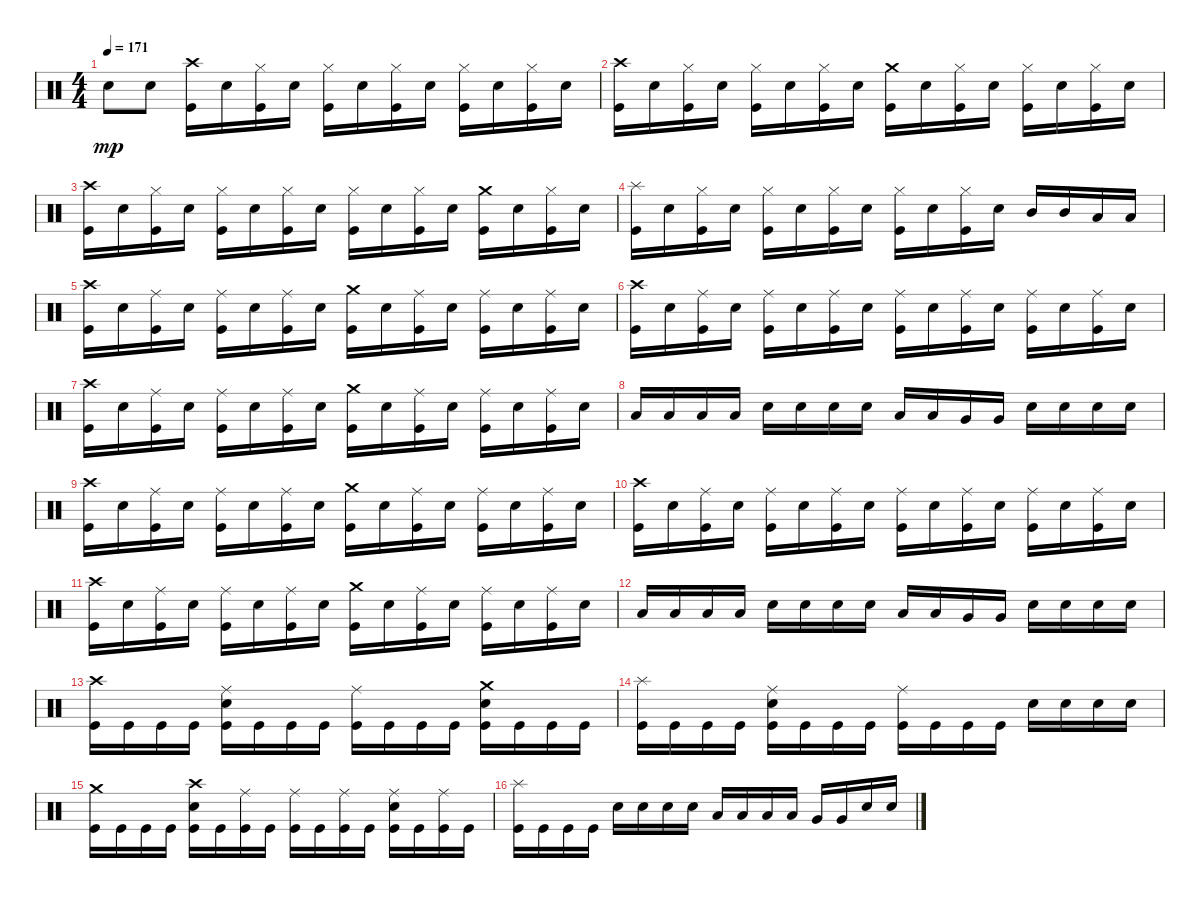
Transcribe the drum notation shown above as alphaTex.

\track "" {instrument percussion}
\staff {score}
\articulation defaults
\ts (4 4)
\tempo 171
\clef neutral
\ks c "Snare (hit) 2".8{dy mp} "Snare (hit) 2".8
("Kick (hit)" "Crash high (hit)").16 "Snare (hit) 2".16 ("Kick (hit)" "Hi-Hat (closed)").16 "Snare (hit) 2".16 ("Kick (hit)" "Hi-Hat (closed)").16 "Snare (hit) 2".16 ("Kick (hit)" "Hi-Hat (closed)").16 "Snare (hit) 2".16 ("Kick (hit)" "Hi-Hat (closed)").16 "Snare (hit) 2".16 ("Kick (hit)" "Hi-Hat (closed)").16 "Snare (hit) 2".16 |
("Kick (hit)" "Crash high (hit)").16 "Snare (hit) 2".16 ("Kick (hit)" "Hi-Hat (closed)").16 "Snare (hit) 2".16 ("Kick (hit)" "Hi-Hat (closed)").16 "Snare (hit) 2".16 ("Kick (hit)" "Hi-Hat (closed)").16 "Snare (hit) 2".16 ("Crash medium (hit)" "Kick (hit)").16 "Snare (hit) 2".16 ("Hi-Hat (closed)" "Kick (hit)").16 "Snare (hit) 2".16 ("Kick (hit)" "Hi-Hat (closed)").16 "Snare (hit) 2".16 ("Hi-Hat (closed)" "Kick (hit)").16 "Snare (hit) 2".16 |
("Kick (hit)" "Crash high (hit)").16 "Snare (hit) 2".16 ("Hi-Hat (closed)" "Kick (hit)").16 "Snare (hit) 2".16 ("Hi-Hat (closed)" "Kick (hit)").16 "Snare (hit) 2".16 ("Hi-Hat (closed)" "Kick (hit)").16 "Snare (hit) 2".16 ("Hi-Hat (closed)" "Kick (hit)").16 "Snare (hit) 2".16 ("Hi-Hat (closed)" "Kick (hit)").16 "Snare (hit) 2".16 ("Crash medium (hit)" "Kick (hit)").16 "Snare (hit) 2".16 ("Kick (hit)" "Hi-Hat (closed)").16 "Snare (hit) 2".16 |
("Kick (hit)" "Splash (hit)").16 "Snare (hit) 2".16 ("Hi-Hat (closed)" "Kick (hit)").16 "Snare (hit) 2".16 ("Hi-Hat (closed)" "Kick (hit)").16 "Snare (hit) 2".16 ("Hi-Hat (closed)" "Kick (hit)").16 "Snare (hit) 2".16 ("Hi-Hat (closed)" "Kick (hit)").16 "Snare (hit) 2".16 ("Hi-Hat (closed)" "Kick (hit)").16 "Snare (hit) 2".16 "Mid Tom (hit)".16 "Mid Tom (hit)".16 "Low Tom (hit)".16 "Low Tom (hit)".16 |
("Kick (hit)" "Crash high (hit)").16 "Snare (hit) 2".16 ("Kick (hit)" "Ride (middle)").16 "Snare (hit) 2".16 ("Kick (hit)" "Ride (middle)").16 "Snare (hit) 2".16 ("Kick (hit)" "Ride (middle)").16 "Snare (hit) 2".16 ("Kick (hit)" "Crash medium (hit)").16 "Snare (hit) 2".16 ("Kick (hit)" "Ride (middle)").16 "Snare (hit) 2".16 ("Kick (hit)" "Ride (middle)").16 "Snare (hit) 2".16 ("Kick (hit)" "Ride (middle)").16 "Snare (hit) 2".16 |
("Crash high (hit)" "Kick (hit)").16 "Snare (hit) 2".16 ("Kick (hit)" "Ride (middle)").16 "Snare (hit) 2".16 ("Kick (hit)" "Ride (middle)").16 "Snare (hit) 2".16 ("Kick (hit)" "Ride (middle)").16 "Snare (hit) 2".16 ("Ride (middle)" "Kick (hit)").16 "Snare (hit) 2".16 ("Ride (middle)" "Kick (hit)").16 "Snare (hit) 2".16 ("Ride (middle)" "Kick (hit)").16 "Snare (hit) 2".16 ("Ride (middle)" "Kick (hit)").16 "Snare (hit) 2".16 |
("Kick (hit)" "Crash high (hit)").16 "Snare (hit) 2".16 ("Kick (hit)" "Ride (middle)").16 "Snare (hit) 2".16 ("Kick (hit)" "Ride (middle)").16 "Snare (hit) 2".16 ("Kick (hit)" "Ride (middle)").16 "Snare (hit) 2".16 ("Kick (hit)" "Crash medium (hit)").16 "Snare (hit) 2".16 ("Kick (hit)" "Ride (middle)").16 "Snare (hit) 2".16 ("Kick (hit)" "Ride (middle)").16 "Snare (hit) 2".16 ("Kick (hit)" "Ride (middle)").16 "Snare (hit) 2".16 |
"Low Tom (hit)".16 "Low Tom (hit)".16 "Low Tom (hit)".16 "Low Tom (hit)".16 "Snare (hit) 2".16 "Snare (hit) 2".16 "Snare (hit) 2".16 "Snare (hit) 2".16 "Low Tom (hit)".16 "Low Tom (hit)".16 "Very Low Tom (hit)".16 "Very Low Tom (hit)".16 "Snare (hit) 2".16 "Snare (hit) 2".16 "Snare (hit) 2".16 "Snare (hit) 2".16 |
("Kick (hit)" "Crash high (hit)").16 "Snare (hit) 2".16 ("Kick (hit)" "Ride (middle)").16 "Snare (hit) 2".16 ("Kick (hit)" "Ride (middle)").16 "Snare (hit) 2".16 ("Kick (hit)" "Ride (middle)").16 "Snare (hit) 2".16 ("Kick (hit)" "Crash medium (hit)").16 "Snare (hit) 2".16 ("Kick (hit)" "Ride (middle)").16 "Snare (hit) 2".16 ("Kick (hit)" "Ride (middle)").16 "Snare (hit) 2".16 ("Kick (hit)" "Ride (middle)").16 "Snare (hit) 2".16 |
("Crash high (hit)" "Kick (hit)").16 "Snare (hit) 2".16 ("Kick (hit)" "Ride (middle)").16 "Snare (hit) 2".16 ("Kick (hit)" "Ride (middle)").16 "Snare (hit) 2".16 ("Kick (hit)" "Ride (middle)").16 "Snare (hit) 2".16 ("Ride (middle)" "Kick (hit)").16 "Snare (hit) 2".16 ("Ride (middle)" "Kick (hit)").16 "Snare (hit) 2".16 ("Ride (middle)" "Kick (hit)").16 "Snare (hit) 2".16 ("Ride (middle)" "Kick (hit)").16 "Snare (hit) 2".16 |
("Kick (hit)" "Crash high (hit)").16 "Snare (hit) 2".16 ("Kick (hit)" "Ride (middle)").16 "Snare (hit) 2".16 ("Kick (hit)" "Ride (middle)").16 "Snare (hit) 2".16 ("Kick (hit)" "Ride (middle)").16 "Snare (hit) 2".16 ("Kick (hit)" "Crash medium (hit)").16 "Snare (hit) 2".16 ("Kick (hit)" "Ride (middle)").16 "Snare (hit) 2".16 ("Kick (hit)" "Ride (middle)").16 "Snare (hit) 2".16 ("Kick (hit)" "Ride (middle)").16 "Snare (hit) 2".16 |
"Low Tom (hit)".16 "Low Tom (hit)".16 "Low Tom (hit)".16 "Low Tom (hit)".16 "Snare (hit) 2".16 "Snare (hit) 2".16 "Snare (hit) 2".16 "Snare (hit) 2".16 "Low Tom (hit)".16 "Low Tom (hit)".16 "Very Low Tom (hit)".16 "Very Low Tom (hit)".16 "Snare (hit) 2".16 "Snare (hit) 2".16 "Snare (hit) 2".16 "Snare (hit) 2".16 |
("Kick (hit)" "Crash high (hit)").16 "Kick (hit)".16 "Kick (hit)".16 "Kick (hit)".16 ("Kick (hit)" "Ride (middle)" "Snare (hit) 2").16 "Kick (hit)".16 "Kick (hit)".16 "Kick (hit)".16 ("Kick (hit)" "Ride (middle)").16 "Kick (hit)".16 "Kick (hit)".16 "Kick (hit)".16 ("Kick (hit)" "Crash medium (hit)" "Snare (hit) 2").16 "Kick (hit)".16 "Kick (hit)".16 "Kick (hit)".16 |
("Kick (hit)" "Splash (hit)").16 "Kick (hit)".16 "Kick (hit)".16 "Kick (hit)".16 ("Kick (hit)" "Snare (hit) 2" "Ride (middle)").16 "Kick (hit)".16 "Kick (hit)".16 "Kick (hit)".16 ("Kick (hit)" "Ride (middle)").16 "Kick (hit)".16 "Kick (hit)".16 "Kick (hit)".16 "Snare (hit) 2".16 "Snare (hit) 2".16 "Snare (hit) 2".16 "Snare (hit) 2".16 |
("Crash medium (hit)" "Kick (hit)").16 "Kick (hit)".16 "Kick (hit)".16 "Kick (hit)".16 ("Kick (hit)" "Snare (hit) 2" "Crash high (hit)").16 "Kick (hit)".16 ("Kick (hit)" "Ride (middle)").16 "Kick (hit)".16 ("Kick (hit)" "Ride (middle)").16 "Kick (hit)".16 ("Kick (hit)" "Ride (middle)").16 "Kick (hit)".16 ("Kick (hit)" "Snare (hit) 2" "Ride (middle)").16 "Kick (hit)".16 ("Kick (hit)" "Ride (middle)").16 "Kick (hit)".16 |
("Splash (hit)" "Kick (hit)").16 "Kick (hit)".16 "Kick (hit)".16 "Kick (hit)".16 "Snare (hit) 2".16 "Snare (hit) 2".16 "Snare (hit) 2".16 "Snare (hit) 2".16 "Low Tom (hit)".16 "Low Tom (hit)".16 "Low Tom (hit)".16 "Low Tom (hit)".16 "Very Low Tom (hit)".16 "Very Low Tom (hit)".16 "Snare (hit) 2".16 "Snare (hit) 2".16
